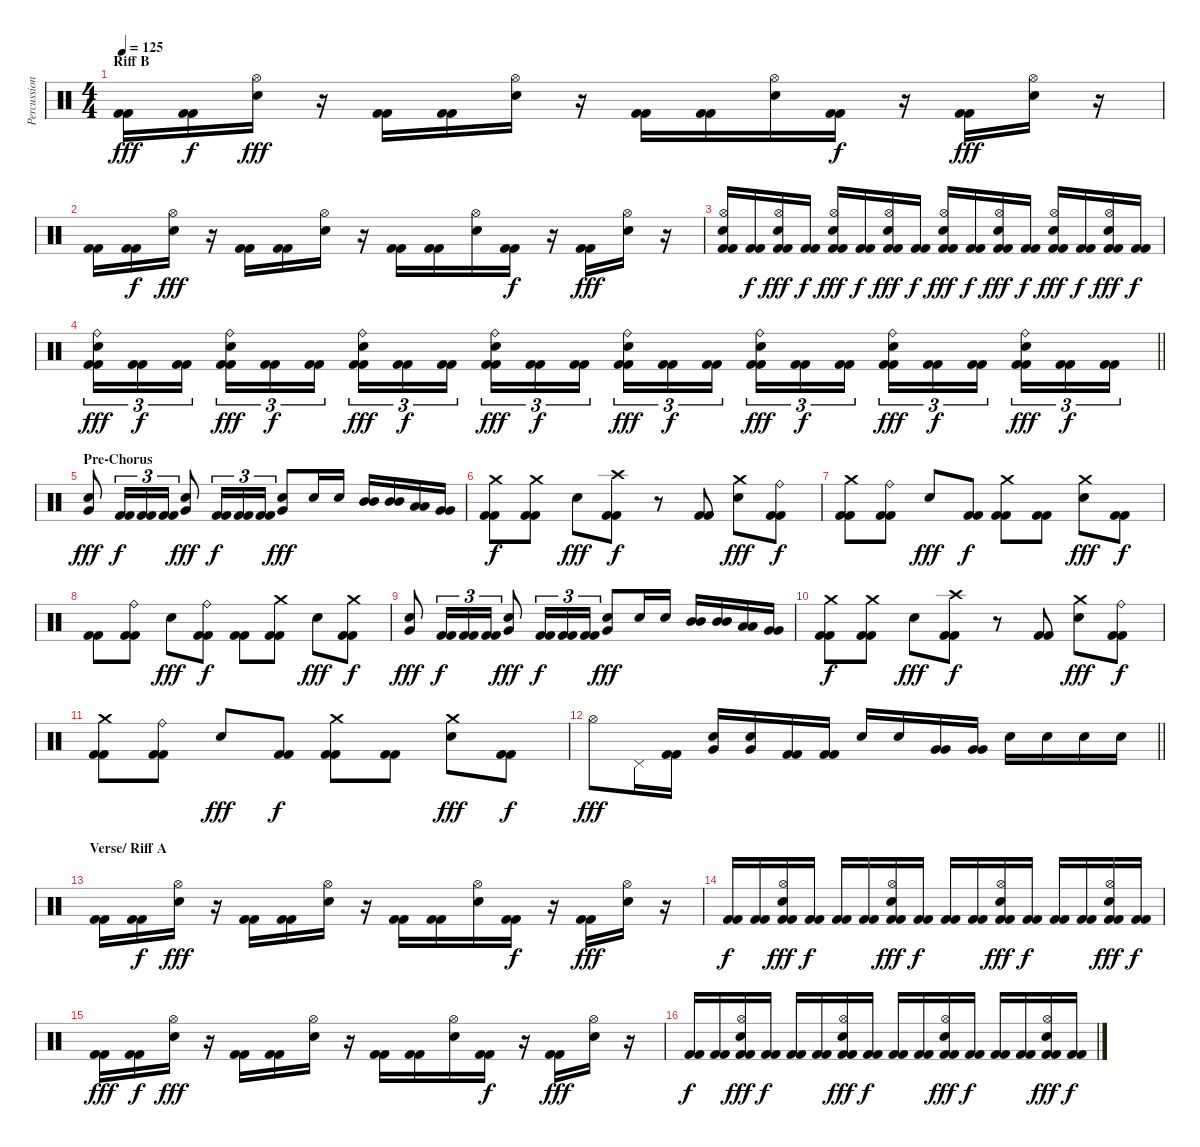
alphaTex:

\track ("Percussion" "Percussion") {solo instrument percussion}
\staff {score}
\articulation defaults
\ts (4 4)
\section ("" "Riff B")
\tempo 125
\clef neutral
\ks c
("Kick (hit) 2" "Kick (hit) 2").16{dy fff} ("Kick (hit) 2" "Kick (hit) 2").16{dy f} ("Hi-Hat (open)" "Electric Snare (hit)").16{dy fff} r.16 ("Kick (hit) 2" "Kick (hit) 2").16 ("Kick (hit) 2" "Kick (hit) 2").16 ("Hi-Hat (open)" "Electric Snare (hit)").16 r.16 ("Kick (hit) 2" "Kick (hit) 2").16 ("Kick (hit) 2" "Kick (hit) 2").16 ("Hi-Hat (open)" "Electric Snare (hit)").16 ("Kick (hit) 2" "Kick (hit) 2").16{dy f} r.16 ("Kick (hit) 2" "Kick (hit) 2").16{dy fff} ("Hi-Hat (open)" "Electric Snare (hit)").16 r.16 |
("Kick (hit) 2" "Kick (hit) 2").16 ("Kick (hit) 2" "Kick (hit) 2").16{dy f} ("Hi-Hat (open)" "Electric Snare (hit)").16{dy fff} r.16 ("Kick (hit) 2" "Kick (hit) 2").16 ("Kick (hit) 2" "Kick (hit) 2").16 ("Hi-Hat (open)" "Electric Snare (hit)").16 r.16 ("Kick (hit) 2" "Kick (hit) 2").16 ("Kick (hit) 2" "Kick (hit) 2").16 ("Hi-Hat (open)" "Electric Snare (hit)").16 ("Kick (hit) 2" "Kick (hit) 2").16{dy f} r.16 ("Kick (hit) 2" "Kick (hit) 2").16{dy fff} ("Hi-Hat (open)" "Electric Snare (hit)").16 r.16 |
("Hi-Hat (open)" "Electric Snare (hit)" "Kick (hit) 2" "Kick (hit) 2").16 ("Kick (hit) 2" "Kick (hit) 2").16{dy f} ("Hi-Hat (open)" "Electric Snare (hit)" "Kick (hit) 2" "Kick (hit) 2").16{dy fff} ("Kick (hit) 2" "Kick (hit) 2").16{dy f} ("Hi-Hat (open)" "Electric Snare (hit)" "Kick (hit) 2" "Kick (hit) 2").16{dy fff} ("Kick (hit) 2" "Kick (hit) 2").16{dy f} ("Hi-Hat (open)" "Electric Snare (hit)" "Kick (hit) 2" "Kick (hit) 2").16{dy fff} ("Kick (hit) 2" "Kick (hit) 2").16{dy f} ("Hi-Hat (open)" "Electric Snare (hit)" "Kick (hit) 2" "Kick (hit) 2").16{dy fff} ("Kick (hit) 2" "Kick (hit) 2").16{dy f} ("Hi-Hat (open)" "Electric Snare (hit)" "Kick (hit) 2" "Kick (hit) 2").16{dy fff} ("Kick (hit) 2" "Kick (hit) 2").16{dy f} ("Hi-Hat (open)" "Electric Snare (hit)" "Kick (hit) 2" "Kick (hit) 2").16{dy fff} ("Kick (hit) 2" "Kick (hit) 2").16{dy f} ("Hi-Hat (open)" "Electric Snare (hit)" "Kick (hit) 2" "Kick (hit) 2").16{dy fff} ("Kick (hit) 2" "Kick (hit) 2").16{dy f} |
\barLineRight lightlight
("Ride (bell)" "Electric Snare (hit)" "Kick (hit) 2" "Kick (hit) 2").16{tu (3 2) dy fff} ("Kick (hit) 2" "Kick (hit) 2").16{tu (3 2) dy f} ("Kick (hit) 2" "Kick (hit) 2").16{tu (3 2) beam splitsecondary} ("Ride (bell)" "Electric Snare (hit)" "Kick (hit) 2" "Kick (hit) 2").16{tu (3 2) dy fff} ("Kick (hit) 2" "Kick (hit) 2").16{tu (3 2) dy f} ("Kick (hit) 2" "Kick (hit) 2").16{tu (3 2)} ("Ride (bell)" "Electric Snare (hit)" "Kick (hit) 2" "Kick (hit) 2").16{tu (3 2) dy fff} ("Kick (hit) 2" "Kick (hit) 2").16{tu (3 2) dy f} ("Kick (hit) 2" "Kick (hit) 2").16{tu (3 2) beam splitsecondary} ("Ride (bell)" "Electric Snare (hit)" "Kick (hit) 2" "Kick (hit) 2").16{tu (3 2) dy fff} ("Kick (hit) 2" "Kick (hit) 2").16{tu (3 2) dy f} ("Kick (hit) 2" "Kick (hit) 2").16{tu (3 2)} ("Ride (bell)" "Electric Snare (hit)" "Kick (hit) 2" "Kick (hit) 2").16{tu (3 2) dy fff} ("Kick (hit) 2" "Kick (hit) 2").16{tu (3 2) dy f} ("Kick (hit) 2" "Kick (hit) 2").16{tu (3 2) beam splitsecondary} ("Ride (bell)" "Electric Snare (hit)" "Kick (hit) 2" "Kick (hit) 2").16{tu (3 2) dy fff} ("Kick (hit) 2" "Kick (hit) 2").16{tu (3 2) dy f} ("Kick (hit) 2" "Kick (hit) 2").16{tu (3 2)} ("Ride (bell)" "Electric Snare (hit)" "Kick (hit) 2" "Kick (hit) 2").16{tu (3 2) dy fff} ("Kick (hit) 2" "Kick (hit) 2").16{tu (3 2) dy f} ("Kick (hit) 2" "Kick (hit) 2").16{tu (3 2) beam splitsecondary} ("Ride (bell)" "Electric Snare (hit)" "Kick (hit) 2" "Kick (hit) 2").16{tu (3 2) dy fff} ("Kick (hit) 2" "Kick (hit) 2").16{tu (3 2) dy f} ("Kick (hit) 2" "Kick (hit) 2").16{tu (3 2)} |
\section ("" "Pre-Chorus")
("Electric Snare (hit)" "Very Low Tom (hit)").8{dy fff} ("Kick (hit) 2" "Kick (hit) 2").16{tu (3 2) dy f} ("Kick (hit) 2" "Kick (hit) 2").16{tu (3 2)} ("Kick (hit) 2" "Kick (hit) 2").16{tu (3 2)} ("Electric Snare (hit)" "Very Low Tom (hit)").8{dy fff} ("Kick (hit) 2" "Kick (hit) 2").16{tu (3 2) dy f} ("Kick (hit) 2" "Kick (hit) 2").16{tu (3 2)} ("Kick (hit) 2" "Kick (hit) 2").16{tu (3 2)} ("Electric Snare (hit)" "Very Low Tom (hit)").8{dy fff} "Electric Snare (hit)".16 "Electric Snare (hit)".16 ("Mid Tom (hit)" "Mid Tom (hit)").16 ("Mid Tom (hit)" "Mid Tom (hit)").16 ("Low Tom (hit)" "Low Tom (hit)").16 ("Very Low Tom (hit)" "Very Low Tom (hit)").16 |
("Crash medium (hit)" "Kick (hit) 2" "Kick (hit) 2").8{dy f} ("Crash medium (hit)" "Kick (hit) 2" "Kick (hit) 2").8 "Electric Snare (hit)".8{dy fff} ("Crash high (hit)" "Kick (hit) 2" "Kick (hit) 2").8{dy f} r.8 ("Kick (hit) 2" "Kick (hit) 2").8 ("Crash medium (hit)" "Electric Snare (hit)").8{dy fff} ("Ride (bell)" "Kick (hit) 2" "Kick (hit) 2").8{dy f} |
("Crash medium (hit)" "Kick (hit) 2" "Kick (hit) 2").8 ("Ride (bell)" "Kick (hit) 2" "Kick (hit) 2").8 "Electric Snare (hit)".8{dy fff} ("Kick (hit) 2" "Kick (hit) 2").8{dy f} ("Crash medium (hit)" "Kick (hit) 2" "Kick (hit) 2").8 ("Kick (hit) 2" "Kick (hit) 2").8 ("Crash medium (hit)" "Electric Snare (hit)").8{dy fff} ("Kick (hit) 2" "Kick (hit) 2").8{dy f} |
("Kick (hit) 2" "Kick (hit) 2").8 ("Ride (bell)" "Kick (hit) 2" "Kick (hit) 2").8 "Electric Snare (hit)".8{dy fff} ("Ride (bell)" "Kick (hit) 2" "Kick (hit) 2").8{dy f} ("Kick (hit) 2" "Kick (hit) 2").8 ("Crash medium (hit)" "Kick (hit) 2" "Kick (hit) 2").8 "Electric Snare (hit)".8{dy fff} ("Crash medium (hit)" "Kick (hit) 2" "Kick (hit) 2").8{dy f} |
("Electric Snare (hit)" "Very Low Tom (hit)").8{dy fff} ("Kick (hit) 2" "Kick (hit) 2").16{tu (3 2) dy f} ("Kick (hit) 2" "Kick (hit) 2").16{tu (3 2)} ("Kick (hit) 2" "Kick (hit) 2").16{tu (3 2)} ("Electric Snare (hit)" "Very Low Tom (hit)").8{dy fff} ("Kick (hit) 2" "Kick (hit) 2").16{tu (3 2) dy f} ("Kick (hit) 2" "Kick (hit) 2").16{tu (3 2)} ("Kick (hit) 2" "Kick (hit) 2").16{tu (3 2)} ("Electric Snare (hit)" "Very Low Tom (hit)").8{dy fff} "Electric Snare (hit)".16 "Electric Snare (hit)".16 ("Mid Tom (hit)" "Mid Tom (hit)").16 ("Mid Tom (hit)" "Mid Tom (hit)").16 ("Low Tom (hit)" "Low Tom (hit)").16 ("Very Low Tom (hit)" "Very Low Tom (hit)").16 |
("Crash medium (hit)" "Kick (hit) 2" "Kick (hit) 2").8{dy f} ("Crash medium (hit)" "Kick (hit) 2" "Kick (hit) 2").8 "Electric Snare (hit)".8{dy fff} ("Crash high (hit)" "Kick (hit) 2" "Kick (hit) 2").8{dy f} r.8 ("Kick (hit) 2" "Kick (hit) 2").8 ("Crash medium (hit)" "Electric Snare (hit)").8{dy fff} ("Ride (bell)" "Kick (hit) 2" "Kick (hit) 2").8{dy f} |
("Crash medium (hit)" "Kick (hit) 2" "Kick (hit) 2").8 ("Ride (bell)" "Kick (hit) 2" "Kick (hit) 2").8 "Electric Snare (hit)".8{dy fff} ("Kick (hit) 2" "Kick (hit) 2").8{dy f} ("Crash medium (hit)" "Kick (hit) 2" "Kick (hit) 2").8 ("Kick (hit) 2" "Kick (hit) 2").8 ("Crash medium (hit)" "Electric Snare (hit)").8{dy fff} ("Kick (hit) 2" "Kick (hit) 2").8{dy f} |
\barLineRight lightlight "Hi-Hat (open)".8{dy fff} "Pedal Hi-Hat (hit)".16
("Kick (hit) 2" "Kick (hit) 2").16 ("Very Low Tom (hit)" "Electric Snare (hit)").16 ("Very Low Tom (hit)" "Electric Snare (hit)").16 ("Kick (hit) 2" "Kick (hit) 2").16 ("Kick (hit) 2" "Kick (hit) 2").16 "Electric Snare (hit)".16 "Electric Snare (hit)".16 ("Very Low Tom (hit)" "Very Low Tom (hit)").16 ("Very Low Tom (hit)" "Very Low Tom (hit)").16 "Electric Snare (hit)".16 "Electric Snare (hit)".16 "Electric Snare (hit)".16 "Electric Snare (hit)".16 |
\section ("" "Verse/ Riff A")
("Kick (hit) 2" "Kick (hit) 2").16 ("Kick (hit) 2" "Kick (hit) 2").16{dy f} ("Hi-Hat (open)" "Electric Snare (hit)").16{dy fff} r.16 ("Kick (hit) 2" "Kick (hit) 2").16 ("Kick (hit) 2" "Kick (hit) 2").16 ("Hi-Hat (open)" "Electric Snare (hit)").16 r.16 ("Kick (hit) 2" "Kick (hit) 2").16 ("Kick (hit) 2" "Kick (hit) 2").16 ("Hi-Hat (open)" "Electric Snare (hit)").16 ("Kick (hit) 2" "Kick (hit) 2").16{dy f} r.16 ("Kick (hit) 2" "Kick (hit) 2").16{dy fff} ("Hi-Hat (open)" "Electric Snare (hit)").16 r.16 |
("Kick (hit) 2" "Kick (hit) 2").16{dy f} ("Kick (hit) 2" "Kick (hit) 2").16 ("Hi-Hat (open)" "Electric Snare (hit)" "Kick (hit) 2" "Kick (hit) 2").16{dy fff} ("Kick (hit) 2" "Kick (hit) 2").16{dy f} ("Kick (hit) 2" "Kick (hit) 2").16 ("Kick (hit) 2" "Kick (hit) 2").16 ("Hi-Hat (open)" "Electric Snare (hit)" "Kick (hit) 2" "Kick (hit) 2").16{dy fff} ("Kick (hit) 2" "Kick (hit) 2").16{dy f} ("Kick (hit) 2" "Kick (hit) 2").16 ("Kick (hit) 2" "Kick (hit) 2").16 ("Hi-Hat (open)" "Electric Snare (hit)" "Kick (hit) 2" "Kick (hit) 2").16{dy fff} ("Kick (hit) 2" "Kick (hit) 2").16{dy f} ("Kick (hit) 2" "Kick (hit) 2").16 ("Kick (hit) 2" "Kick (hit) 2").16 ("Hi-Hat (open)" "Electric Snare (hit)" "Kick (hit) 2" "Kick (hit) 2").16{dy fff} ("Kick (hit) 2" "Kick (hit) 2").16{dy f} |
("Kick (hit) 2" "Kick (hit) 2").16{dy fff} ("Kick (hit) 2" "Kick (hit) 2").16{dy f} ("Hi-Hat (open)" "Electric Snare (hit)").16{dy fff} r.16 ("Kick (hit) 2" "Kick (hit) 2").16 ("Kick (hit) 2" "Kick (hit) 2").16 ("Hi-Hat (open)" "Electric Snare (hit)").16 r.16 ("Kick (hit) 2" "Kick (hit) 2").16 ("Kick (hit) 2" "Kick (hit) 2").16 ("Hi-Hat (open)" "Electric Snare (hit)").16 ("Kick (hit) 2" "Kick (hit) 2").16{dy f} r.16 ("Kick (hit) 2" "Kick (hit) 2").16{dy fff} ("Hi-Hat (open)" "Electric Snare (hit)").16 r.16 |
("Kick (hit) 2" "Kick (hit) 2").16{dy f} ("Kick (hit) 2" "Kick (hit) 2").16 ("Hi-Hat (open)" "Electric Snare (hit)" "Kick (hit) 2" "Kick (hit) 2").16{dy fff} ("Kick (hit) 2" "Kick (hit) 2").16{dy f} ("Kick (hit) 2" "Kick (hit) 2").16 ("Kick (hit) 2" "Kick (hit) 2").16 ("Hi-Hat (open)" "Electric Snare (hit)" "Kick (hit) 2" "Kick (hit) 2").16{dy fff} ("Kick (hit) 2" "Kick (hit) 2").16{dy f} ("Kick (hit) 2" "Kick (hit) 2").16 ("Kick (hit) 2" "Kick (hit) 2").16 ("Hi-Hat (open)" "Electric Snare (hit)" "Kick (hit) 2" "Kick (hit) 2").16{dy fff} ("Kick (hit) 2" "Kick (hit) 2").16{dy f} ("Kick (hit) 2" "Kick (hit) 2").16 ("Kick (hit) 2" "Kick (hit) 2").16 ("Hi-Hat (open)" "Electric Snare (hit)" "Kick (hit) 2" "Kick (hit) 2").16{dy fff} ("Kick (hit) 2" "Kick (hit) 2").16{dy f}
